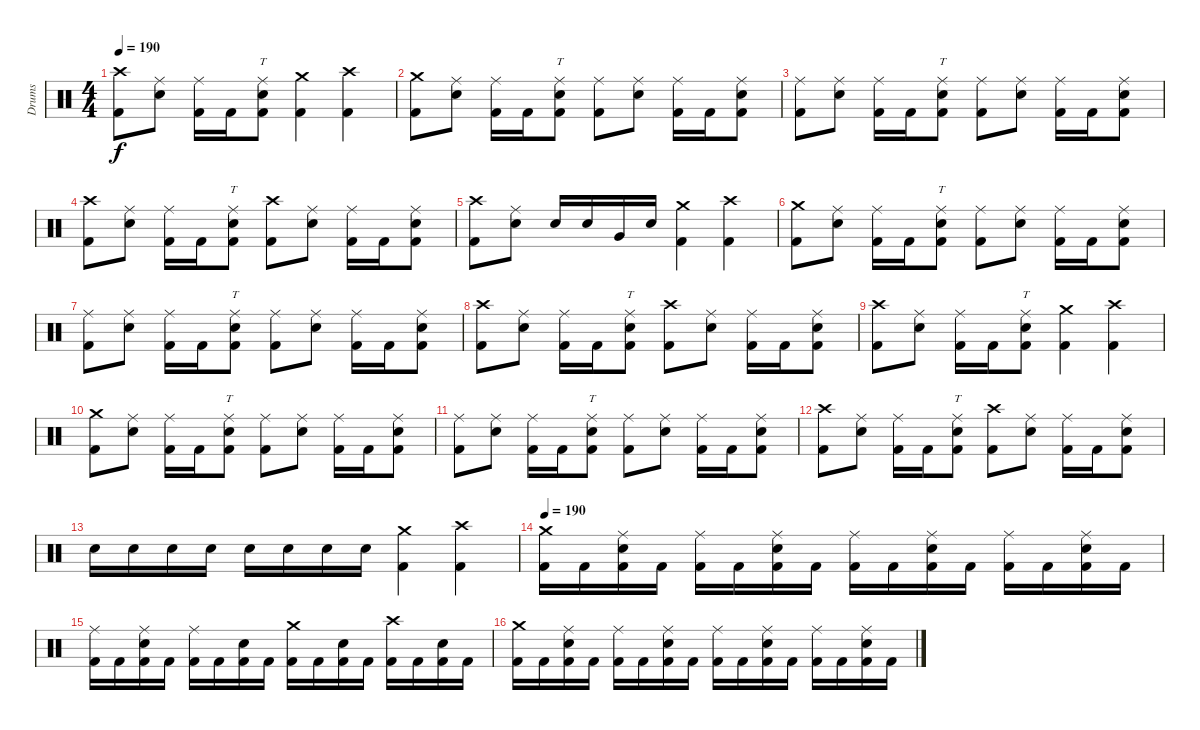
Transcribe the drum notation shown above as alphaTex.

\track ("Drums" "Drums") {instrument percussion}
\staff {score}
\articulation defaults
\ts (4 4)
\tempo 190
\clef neutral
\ks c
("Crash high (hit)" "Kick (hit) 2").8{dy f} ("Ride (middle)" "Electric Snare (hit)").8 ("Ride (middle)" "Kick (hit) 2").16 "Kick (hit) 2".16 ("Ride (middle)" "Electric Snare (hit)" "Kick (hit) 2").8{tt} ("Crash medium (hit)" "Kick (hit) 2").4 ("Crash high (hit)" "Kick (hit) 2").4 |
("Crash medium (hit)" "Kick (hit) 2").8 ("Ride (middle)" "Electric Snare (hit)").8 ("Ride (middle)" "Kick (hit) 2").16 "Kick (hit) 2".16 ("Ride (middle)" "Electric Snare (hit)" "Kick (hit) 2").8{tt} ("Ride (middle)" "Kick (hit) 2").8 ("Ride (middle)" "Electric Snare (hit)").8 ("Ride (middle)" "Kick (hit) 2").16 "Kick (hit) 2".16 ("Ride (middle)" "Electric Snare (hit)" "Kick (hit) 2").8 |
("Ride (middle)" "Kick (hit) 2").8 ("Ride (middle)" "Electric Snare (hit)").8 ("Ride (middle)" "Kick (hit) 2").16 "Kick (hit) 2".16 ("Ride (middle)" "Electric Snare (hit)" "Kick (hit) 2").8{tt} ("Ride (middle)" "Kick (hit) 2").8 ("Ride (middle)" "Electric Snare (hit)").8 ("Ride (middle)" "Kick (hit) 2").16 "Kick (hit) 2".16 ("Ride (middle)" "Electric Snare (hit)" "Kick (hit) 2").8 |
("Crash high (hit)" "Kick (hit) 2").8 ("Ride (middle)" "Electric Snare (hit)").8 ("Ride (middle)" "Kick (hit) 2").16 "Kick (hit) 2".16 ("Ride (middle)" "Electric Snare (hit)" "Kick (hit) 2").8{tt} ("Crash high (hit)" "Kick (hit) 2").8 ("Ride (middle)" "Electric Snare (hit)").8 ("Ride (middle)" "Kick (hit) 2").16 "Kick (hit) 2".16 ("Ride (middle)" "Electric Snare (hit)" "Kick (hit) 2").8 |
("Crash high (hit)" "Kick (hit) 2").8 ("Ride (middle)" "Electric Snare (hit)").8 "Electric Snare (hit)".16 "Electric Snare (hit)".16 "Very Low Tom (hit)".16 "Electric Snare (hit)".16 ("Crash medium (hit)" "Kick (hit) 2").4 ("Crash high (hit)" "Kick (hit) 2").4 |
("Crash medium (hit)" "Kick (hit) 2").8 ("Ride (middle)" "Electric Snare (hit)").8 ("Ride (middle)" "Kick (hit) 2").16 "Kick (hit) 2".16 ("Ride (middle)" "Electric Snare (hit)" "Kick (hit) 2").8{tt} ("Ride (middle)" "Kick (hit) 2").8 ("Ride (middle)" "Electric Snare (hit)").8 ("Ride (middle)" "Kick (hit) 2").16 "Kick (hit) 2".16 ("Ride (middle)" "Electric Snare (hit)" "Kick (hit) 2").8 |
("Ride (middle)" "Kick (hit) 2").8 ("Ride (middle)" "Electric Snare (hit)").8 ("Ride (middle)" "Kick (hit) 2").16 "Kick (hit) 2".16 ("Ride (middle)" "Electric Snare (hit)" "Kick (hit) 2").8{tt} ("Ride (middle)" "Kick (hit) 2").8 ("Ride (middle)" "Electric Snare (hit)").8 ("Ride (middle)" "Kick (hit) 2").16 "Kick (hit) 2".16 ("Ride (middle)" "Electric Snare (hit)" "Kick (hit) 2").8 |
("Crash high (hit)" "Kick (hit) 2").8 ("Ride (middle)" "Electric Snare (hit)").8 ("Ride (middle)" "Kick (hit) 2").16 "Kick (hit) 2".16 ("Ride (middle)" "Electric Snare (hit)" "Kick (hit) 2").8{tt} ("Crash high (hit)" "Kick (hit) 2").8 ("Ride (middle)" "Electric Snare (hit)").8 ("Ride (middle)" "Kick (hit) 2").16 "Kick (hit) 2".16 ("Ride (middle)" "Electric Snare (hit)" "Kick (hit) 2").8 |
("Crash high (hit)" "Kick (hit) 2").8 ("Ride (middle)" "Electric Snare (hit)").8 ("Ride (middle)" "Kick (hit) 2").16 "Kick (hit) 2".16 ("Ride (middle)" "Electric Snare (hit)" "Kick (hit) 2").8{tt} ("Crash medium (hit)" "Kick (hit) 2").4 ("Crash high (hit)" "Kick (hit) 2").4 |
("Crash medium (hit)" "Kick (hit) 2").8 ("Ride (middle)" "Electric Snare (hit)").8 ("Ride (middle)" "Kick (hit) 2").16 "Kick (hit) 2".16 ("Ride (middle)" "Electric Snare (hit)" "Kick (hit) 2").8{tt} ("Ride (middle)" "Kick (hit) 2").8 ("Ride (middle)" "Electric Snare (hit)").8 ("Ride (middle)" "Kick (hit) 2").16 "Kick (hit) 2".16 ("Ride (middle)" "Electric Snare (hit)" "Kick (hit) 2").8 |
("Ride (middle)" "Kick (hit) 2").8 ("Ride (middle)" "Electric Snare (hit)").8 ("Ride (middle)" "Kick (hit) 2").16 "Kick (hit) 2".16 ("Ride (middle)" "Electric Snare (hit)" "Kick (hit) 2").8{tt} ("Ride (middle)" "Kick (hit) 2").8 ("Ride (middle)" "Electric Snare (hit)").8 ("Ride (middle)" "Kick (hit) 2").16 "Kick (hit) 2".16 ("Ride (middle)" "Electric Snare (hit)" "Kick (hit) 2").8 |
("Crash high (hit)" "Kick (hit) 2").8 ("Ride (middle)" "Electric Snare (hit)").8 ("Ride (middle)" "Kick (hit) 2").16 "Kick (hit) 2".16 ("Ride (middle)" "Electric Snare (hit)" "Kick (hit) 2").8{tt} ("Crash high (hit)" "Kick (hit) 2").8 ("Ride (middle)" "Electric Snare (hit)").8 ("Ride (middle)" "Kick (hit) 2").16 "Kick (hit) 2".16 ("Ride (middle)" "Electric Snare (hit)" "Kick (hit) 2").8 |
"Electric Snare (hit)".16 "Electric Snare (hit)".16 "Electric Snare (hit)".16 "Electric Snare (hit)".16 "Electric Snare (hit)".16 "Electric Snare (hit)".16 "Electric Snare (hit)".16 "Electric Snare (hit)".16 ("Crash medium (hit)" "Kick (hit) 2").4 ("Crash high (hit)" "Kick (hit) 2").4 |
\tempo 190
("Crash medium (hit)" "Kick (hit) 2").16 "Kick (hit) 2".16 ("Ride (middle)" "Electric Snare (hit)" "Kick (hit) 2").16 "Kick (hit) 2".16 ("Ride (middle)" "Kick (hit) 2").16 "Kick (hit) 2".16 ("Ride (middle)" "Electric Snare (hit)" "Kick (hit) 2").16 "Kick (hit) 2".16 ("Ride (middle)" "Kick (hit) 2").16 "Kick (hit) 2".16 ("Ride (middle)" "Electric Snare (hit)" "Kick (hit) 2").16 "Kick (hit) 2".16 ("Ride (middle)" "Kick (hit) 2").16 "Kick (hit) 2".16 ("Ride (middle)" "Electric Snare (hit)" "Kick (hit) 2").16 "Kick (hit) 2".16 |
("Ride (middle)" "Kick (hit) 2").16 "Kick (hit) 2".16 ("Ride (middle)" "Electric Snare (hit)" "Kick (hit) 2").16 "Kick (hit) 2".16 ("Ride (middle)" "Kick (hit) 2").16 "Kick (hit) 2".16 ("Electric Snare (hit)" "Kick (hit) 2").16 "Kick (hit) 2".16 ("Crash medium (hit)" "Kick (hit) 2").16 "Kick (hit) 2".16 ("Electric Snare (hit)" "Kick (hit) 2").16 "Kick (hit) 2".16 ("Crash high (hit)" "Kick (hit) 2").16 "Kick (hit) 2".16 ("Electric Snare (hit)" "Kick (hit) 2").16 "Kick (hit) 2".16 |
("Crash medium (hit)" "Kick (hit) 2").16 "Kick (hit) 2".16 ("Ride (middle)" "Electric Snare (hit)" "Kick (hit) 2").16 "Kick (hit) 2".16 ("Ride (middle)" "Kick (hit) 2").16 "Kick (hit) 2".16 ("Ride (middle)" "Electric Snare (hit)" "Kick (hit) 2").16 "Kick (hit) 2".16 ("Ride (middle)" "Kick (hit) 2").16 "Kick (hit) 2".16 ("Ride (middle)" "Electric Snare (hit)" "Kick (hit) 2").16 "Kick (hit) 2".16 ("Ride (middle)" "Kick (hit) 2").16 "Kick (hit) 2".16 ("Ride (middle)" "Electric Snare (hit)" "Kick (hit) 2").16 "Kick (hit) 2".16
